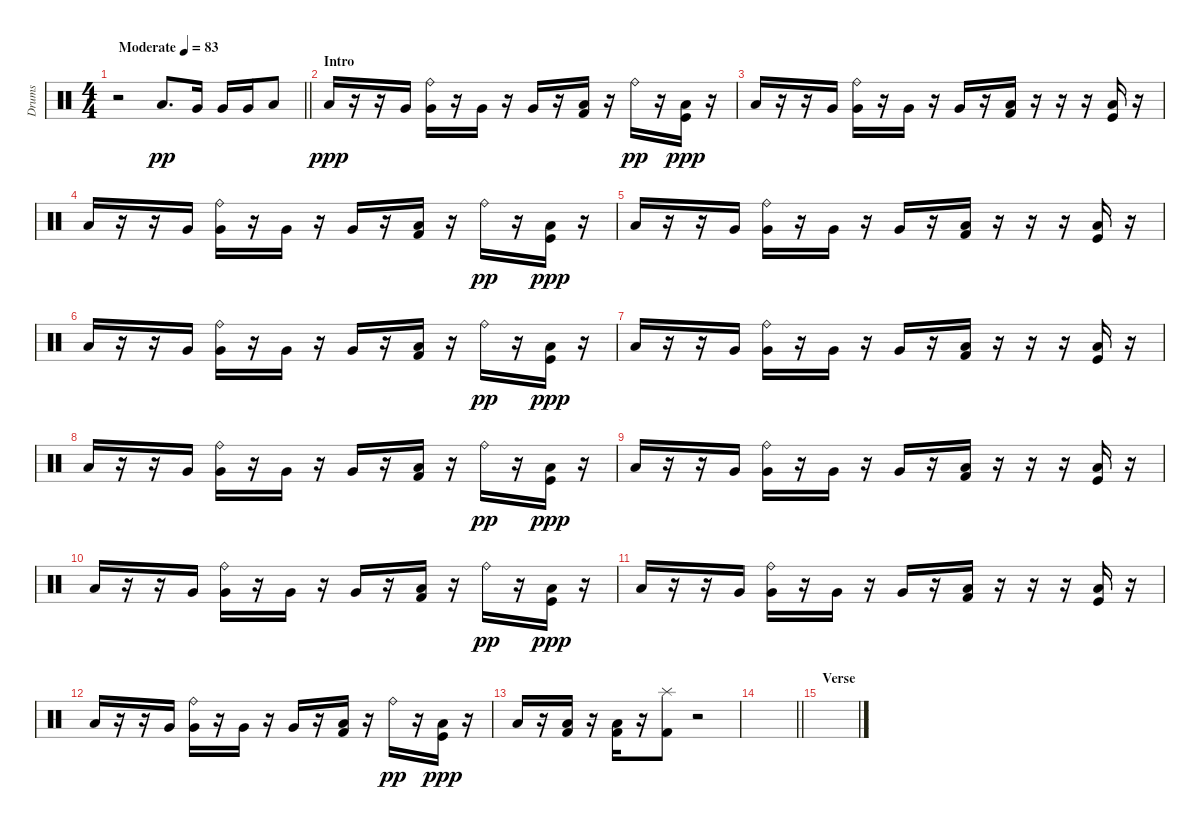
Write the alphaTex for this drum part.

\track ("Drums" "Drums") {instrument percussion}
\staff {score}
\articulation defaults
\ts (4 4)
\tempo (83 "Moderate")
\clef neutral
\barLineRight lightlight
\ks c
r.2{dy pp} "Low Tom (hit)".8{d} "Very Low Tom (hit)".16 "Very Low Tom (hit)".16 "Very Low Tom (hit)".16 "Low Floor Tom (hit)".8 |
\section ("" "Intro")
"Low Tom (hit)".16{dy ppp} r.16 r.16 "Very Low Tom (hit)".16 ("Ride (bell)" "Very Low Tom (hit)").16 r.16 "Very Low Tom (hit)".16 r.16 "Very Low Tom (hit)".16 r.16 ("Low Floor Tom (hit)" "Kick (hit) 2").16 r.16 "Ride (bell)".16{dy pp} r.16 ("Low Floor Tom (hit)" "Kick (hit)").16{dy ppp} r.16 |
"Low Tom (hit)".16 r.16 r.16 "Very Low Tom (hit)".16 ("Ride (bell)" "Very Low Tom (hit)").16 r.16 "Very Low Tom (hit)".16 r.16 "Very Low Tom (hit)".16 r.16 ("Low Floor Tom (hit)" "Kick (hit) 2").16 r.16 r.16 r.16 ("Low Floor Tom (hit)" "Kick (hit)").16 r.16 |
"Low Tom (hit)".16 r.16 r.16 "Very Low Tom (hit)".16 ("Ride (bell)" "Very Low Tom (hit)").16 r.16 "Very Low Tom (hit)".16 r.16 "Very Low Tom (hit)".16 r.16 ("Low Floor Tom (hit)" "Kick (hit) 2").16 r.16 "Ride (bell)".16{dy pp} r.16 ("Low Floor Tom (hit)" "Kick (hit)").16{dy ppp} r.16 |
"Low Tom (hit)".16 r.16 r.16 "Very Low Tom (hit)".16 ("Ride (bell)" "Very Low Tom (hit)").16 r.16 "Very Low Tom (hit)".16 r.16 "Very Low Tom (hit)".16 r.16 ("Low Floor Tom (hit)" "Kick (hit) 2").16 r.16 r.16 r.16 ("Low Floor Tom (hit)" "Kick (hit)").16 r.16 |
"Low Tom (hit)".16 r.16 r.16 "Very Low Tom (hit)".16 ("Ride (bell)" "Very Low Tom (hit)").16 r.16 "Very Low Tom (hit)".16 r.16 "Very Low Tom (hit)".16 r.16 ("Low Floor Tom (hit)" "Kick (hit) 2").16 r.16 "Ride (bell)".16{dy pp} r.16 ("Low Floor Tom (hit)" "Kick (hit)").16{dy ppp} r.16 |
"Low Tom (hit)".16 r.16 r.16 "Very Low Tom (hit)".16 ("Ride (bell)" "Very Low Tom (hit)").16 r.16 "Very Low Tom (hit)".16 r.16 "Very Low Tom (hit)".16 r.16 ("Low Floor Tom (hit)" "Kick (hit) 2").16 r.16 r.16 r.16 ("Low Floor Tom (hit)" "Kick (hit)").16 r.16 |
"Low Tom (hit)".16 r.16 r.16 "Very Low Tom (hit)".16 ("Ride (bell)" "Very Low Tom (hit)").16 r.16 "Very Low Tom (hit)".16 r.16 "Very Low Tom (hit)".16 r.16 ("Low Floor Tom (hit)" "Kick (hit) 2").16 r.16 "Ride (bell)".16{dy pp} r.16 ("Low Floor Tom (hit)" "Kick (hit)").16{dy ppp} r.16 |
"Low Tom (hit)".16 r.16 r.16 "Very Low Tom (hit)".16 ("Ride (bell)" "Very Low Tom (hit)").16 r.16 "Very Low Tom (hit)".16 r.16 "Very Low Tom (hit)".16 r.16 ("Low Floor Tom (hit)" "Kick (hit) 2").16 r.16 r.16 r.16 ("Low Floor Tom (hit)" "Kick (hit)").16 r.16 |
"Low Tom (hit)".16 r.16 r.16 "Very Low Tom (hit)".16 ("Ride (bell)" "Very Low Tom (hit)").16 r.16 "Very Low Tom (hit)".16 r.16 "Very Low Tom (hit)".16 r.16 ("Low Floor Tom (hit)" "Kick (hit) 2").16 r.16 "Ride (bell)".16{dy pp} r.16 ("Low Floor Tom (hit)" "Kick (hit)").16{dy ppp} r.16 |
"Low Tom (hit)".16 r.16 r.16 "Very Low Tom (hit)".16 ("Ride (bell)" "Very Low Tom (hit)").16 r.16 "Very Low Tom (hit)".16 r.16 "Very Low Tom (hit)".16 r.16 ("Low Floor Tom (hit)" "Kick (hit) 2").16 r.16 r.16 r.16 ("Low Floor Tom (hit)" "Kick (hit)").16 r.16 |
"Low Tom (hit)".16 r.16 r.16 "Very Low Tom (hit)".16 ("Ride (bell)" "Very Low Tom (hit)").16 r.16 "Very Low Tom (hit)".16 r.16 "Very Low Tom (hit)".16 r.16 ("Low Floor Tom (hit)" "Kick (hit) 2").16 r.16 "Ride (bell)".16{dy pp} r.16 ("Low Floor Tom (hit)" "Kick (hit)").16{dy ppp} r.16 |
"Low Tom (hit)".16 r.16 ("Low Floor Tom (hit)" "Kick (hit) 2").16 r.16 ("Low Floor Tom (hit)" "Kick (hit) 2").16 r.16 ("Splash (hit)" "Kick (hit) 2").8 r.2 |
\barLineRight lightlight
|
\section ("" "Verse")
